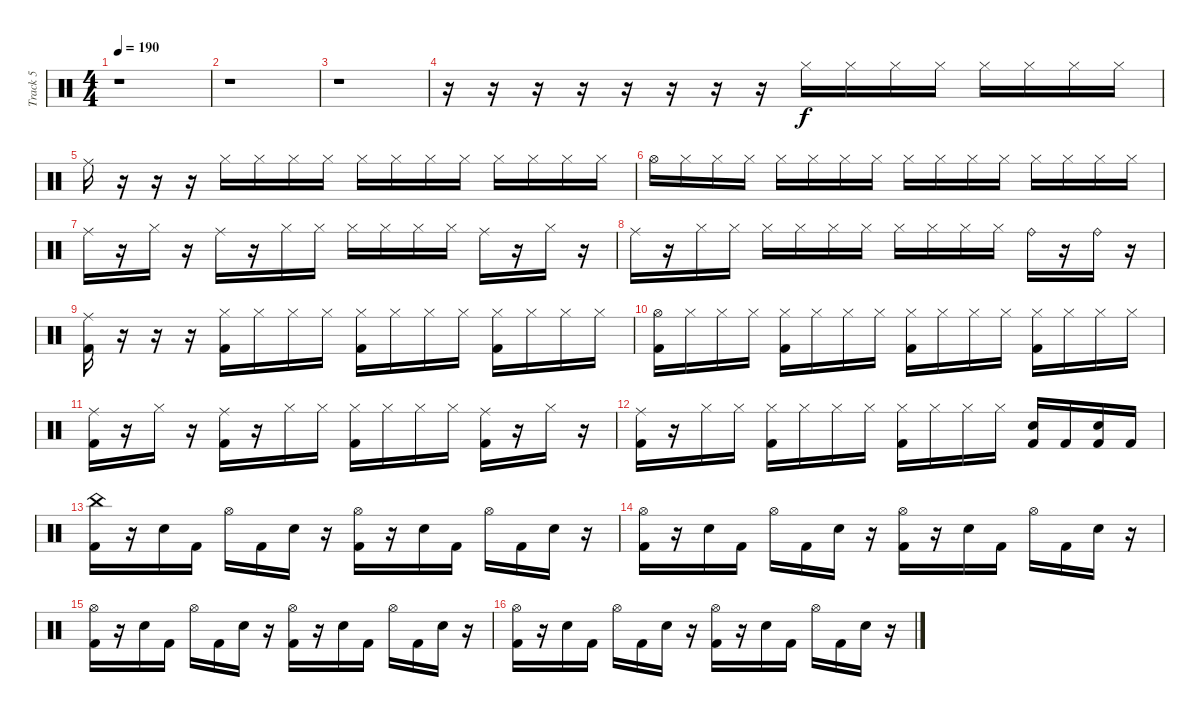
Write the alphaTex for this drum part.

\track ("Track 5" "Track 5") {instrument percussion}
\staff {score}
\articulation defaults
\ts (4 4)
\tempo 190
\clef neutral
\ks c
r.1{dy f} |
r.1 |
r.1 |
r.16 r.16 r.16 r.16 r.16 r.16 r.16 r.16 "Hi-Hat (closed)".16 "Hi-Hat (closed)".16 "Hi-Hat (closed)".16 "Hi-Hat (closed)".16 "Hi-Hat (closed)".16 "Hi-Hat (closed)".16 "Hi-Hat (closed)".16 "Hi-Hat (closed)".16 |
"Ride (middle)".16 r.16 r.16 r.16 "Hi-Hat (closed)".16 "Hi-Hat (closed)".16 "Hi-Hat (closed)".16 "Hi-Hat (closed)".16 "Hi-Hat (closed)".16 "Hi-Hat (closed)".16 "Hi-Hat (closed)".16 "Hi-Hat (closed)".16 "Hi-Hat (closed)".16 "Hi-Hat (closed)".16 "Hi-Hat (closed)".16 "Hi-Hat (closed)".16 |
"Hi-Hat (open)".16 "Hi-Hat (closed)".16 "Hi-Hat (closed)".16 "Hi-Hat (closed)".16 "Hi-Hat (closed)".16 "Hi-Hat (closed)".16 "Hi-Hat (closed)".16 "Hi-Hat (closed)".16 "Hi-Hat (closed)".16 "Hi-Hat (closed)".16 "Hi-Hat (closed)".16 "Hi-Hat (closed)".16 "Hi-Hat (closed)".16 "Hi-Hat (closed)".16 "Hi-Hat (closed)".16 "Hi-Hat (closed)".16 |
"Ride (middle)".16 r.16 "Hi-Hat (closed)".16 r.16 "Ride (middle)".16 r.16 "Hi-Hat (closed)".16 "Hi-Hat (closed)".16 "Hi-Hat (closed)".16 "Hi-Hat (closed)".16 "Hi-Hat (closed)".16 "Hi-Hat (closed)".16 "Ride (middle)".16 r.16 "Hi-Hat (closed)".16 r.16 |
"Ride (middle)".16 r.16 "Hi-Hat (closed)".16 "Hi-Hat (closed)".16 "Hi-Hat (closed)".16 "Hi-Hat (closed)".16 "Hi-Hat (closed)".16 "Hi-Hat (closed)".16 "Hi-Hat (closed)".16 "Hi-Hat (closed)".16 "Hi-Hat (closed)".16 "Hi-Hat (closed)".16 "Ride (bell)".16 r.16 "Ride (bell)".16 r.16 |
("Ride (middle)" "Kick (hit) 2").16 r.16 r.16 r.16 ("Hi-Hat (closed)" "Kick (hit) 2").16 "Hi-Hat (closed)".16 "Hi-Hat (closed)".16 "Hi-Hat (closed)".16 ("Hi-Hat (closed)" "Kick (hit) 2").16 "Hi-Hat (closed)".16 "Hi-Hat (closed)".16 "Hi-Hat (closed)".16 ("Hi-Hat (closed)" "Kick (hit) 2").16 "Hi-Hat (closed)".16 "Hi-Hat (closed)".16 "Hi-Hat (closed)".16 |
("Hi-Hat (open)" "Kick (hit) 2").16 "Hi-Hat (closed)".16 "Hi-Hat (closed)".16 "Hi-Hat (closed)".16 ("Hi-Hat (closed)" "Kick (hit) 2").16 "Hi-Hat (closed)".16 "Hi-Hat (closed)".16 "Hi-Hat (closed)".16 ("Hi-Hat (closed)" "Kick (hit) 2").16 "Hi-Hat (closed)".16 "Hi-Hat (closed)".16 "Hi-Hat (closed)".16 ("Hi-Hat (closed)" "Kick (hit) 2").16 "Hi-Hat (closed)".16 "Hi-Hat (closed)".16 "Hi-Hat (closed)".16 |
("Ride (middle)" "Kick (hit) 2").16 r.16 "Hi-Hat (closed)".16 r.16 ("Ride (middle)" "Kick (hit) 2").16 r.16 "Hi-Hat (closed)".16 "Hi-Hat (closed)".16 ("Hi-Hat (closed)" "Kick (hit) 2").16 "Hi-Hat (closed)".16 "Hi-Hat (closed)".16 "Hi-Hat (closed)".16 ("Ride (middle)" "Kick (hit) 2").16 r.16 "Hi-Hat (closed)".16 r.16 |
("Ride (middle)" "Kick (hit) 2").16 r.16 "Hi-Hat (closed)".16 "Hi-Hat (closed)".16 ("Hi-Hat (closed)" "Kick (hit) 2").16 "Hi-Hat (closed)".16 "Hi-Hat (closed)".16 "Hi-Hat (closed)".16 ("Hi-Hat (closed)" "Kick (hit) 2").16 "Hi-Hat (closed)".16 "Hi-Hat (closed)".16 "Hi-Hat (closed)".16 ("Electric Snare (hit)" "Kick (hit) 2").16 "Kick (hit) 2".16 ("Electric Snare (hit)" "Kick (hit) 2").16 "Kick (hit) 2".16 |
("China (hit)" "Kick (hit) 2").16 r.16 "Electric Snare (hit)".16 "Kick (hit) 2".16 "Hi-Hat (open)".16 "Kick (hit) 2".16 "Electric Snare (hit)".16 r.16 ("Hi-Hat (open)" "Kick (hit) 2").16 r.16 "Electric Snare (hit)".16 "Kick (hit) 2".16 "Hi-Hat (open)".16 "Kick (hit) 2".16 "Electric Snare (hit)".16 r.16 |
("Hi-Hat (open)" "Kick (hit) 2").16 r.16 "Electric Snare (hit)".16 "Kick (hit) 2".16 "Hi-Hat (open)".16 "Kick (hit) 2".16 "Electric Snare (hit)".16 r.16 ("Hi-Hat (open)" "Kick (hit) 2").16 r.16 "Electric Snare (hit)".16 "Kick (hit) 2".16 "Hi-Hat (open)".16 "Kick (hit) 2".16 "Electric Snare (hit)".16 r.16 |
("Hi-Hat (open)" "Kick (hit) 2").16 r.16 "Electric Snare (hit)".16 "Kick (hit) 2".16 "Hi-Hat (open)".16 "Kick (hit) 2".16 "Electric Snare (hit)".16 r.16 ("Hi-Hat (open)" "Kick (hit) 2").16 r.16 "Electric Snare (hit)".16 "Kick (hit) 2".16 "Hi-Hat (open)".16 "Kick (hit) 2".16 "Electric Snare (hit)".16 r.16 |
("Hi-Hat (open)" "Kick (hit) 2").16 r.16 "Electric Snare (hit)".16 "Kick (hit) 2".16 "Hi-Hat (open)".16 "Kick (hit) 2".16 "Electric Snare (hit)".16 r.16 ("Hi-Hat (open)" "Kick (hit) 2").16 r.16 "Electric Snare (hit)".16 "Kick (hit) 2".16 "Hi-Hat (open)".16 "Kick (hit) 2".16 "Electric Snare (hit)".16 r.16
